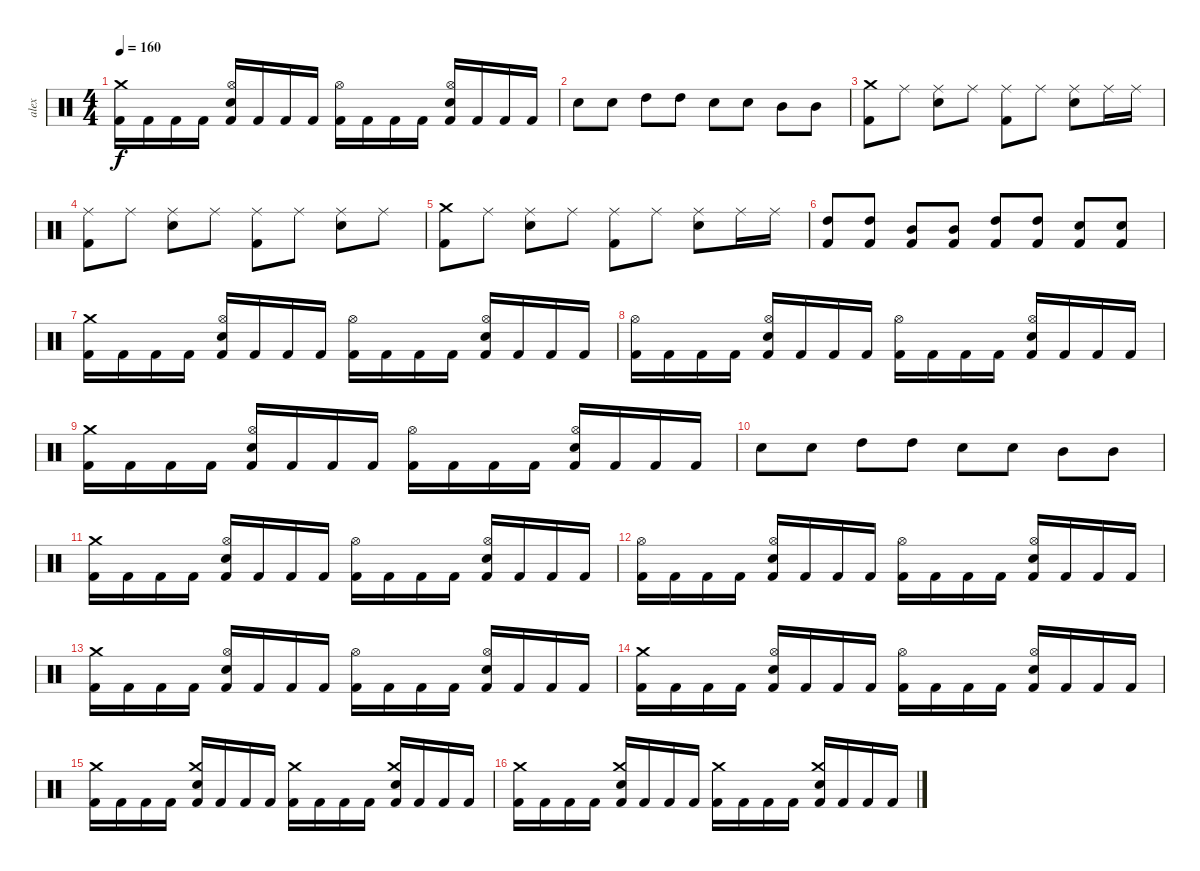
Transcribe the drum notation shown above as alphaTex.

\track ("alex" "alex") {instrument percussion}
\staff {score}
\articulation defaults
\ts (4 4)
\tempo 160
\clef neutral
\ks c
("Kick (hit) 2" "Crash medium (hit)").16{dy f} "Kick (hit) 2".16 "Kick (hit) 2".16 "Kick (hit) 2".16 ("Hi-Hat (open)" "Kick (hit) 2" "Electric Snare (hit)").16 "Kick (hit) 2".16 "Kick (hit) 2".16 "Kick (hit) 2".16 ("Hi-Hat (open)" "Kick (hit) 2").16 "Kick (hit) 2".16 "Kick (hit) 2".16 "Kick (hit) 2".16 ("Hi-Hat (open)" "Kick (hit) 2" "Electric Snare (hit)").16 "Kick (hit) 2".16 "Kick (hit) 2".16 "Kick (hit) 2".16 |
"Electric Snare (hit)".8 "Electric Snare (hit)".8 "High Tom (hit)".8 "High Tom (hit)".8 "Electric Snare (hit)".8 "Electric Snare (hit)".8 "Mid Tom (hit)".8 "Mid Tom (hit)".8 |
("Kick (hit) 2" "Crash medium (hit)").8 "Ride (middle)".8 ("Electric Snare (hit)" "Ride (middle)").8 "Ride (middle)".8 ("Kick (hit) 2" "Ride (middle)").8 "Ride (middle)".8 ("Electric Snare (hit)" "Ride (middle)").8 "Ride (middle)".16 "Ride (middle)".16 |
("Kick (hit) 2" "Ride (middle)").8 "Ride (middle)".8 ("Electric Snare (hit)" "Ride (middle)").8 "Ride (middle)".8 ("Kick (hit) 2" "Ride (middle)").8 "Ride (middle)".8 ("Electric Snare (hit)" "Ride (middle)").8 "Ride (middle)".8 |
("Kick (hit) 2" "Crash medium (hit)").8 "Ride (middle)".8 ("Electric Snare (hit)" "Ride (middle)").8 "Ride (middle)".8 ("Kick (hit) 2" "Ride (middle)").8 "Ride (middle)".8 ("Electric Snare (hit)" "Ride (middle)").8 "Ride (middle)".16 "Ride (middle)".16 |
("Kick (hit) 2" "High Tom (hit)").8 ("Kick (hit) 2" "High Tom (hit)").8 ("Kick (hit) 2" "Mid Tom (hit)").8 ("Kick (hit) 2" "Mid Tom (hit)").8 ("Kick (hit) 2" "High Tom (hit)").8 ("Kick (hit) 2" "High Tom (hit)").8 ("Kick (hit) 2" "Electric Snare (hit)").8 ("Kick (hit) 2" "Electric Snare (hit)").8 |
("Kick (hit) 2" "Crash medium (hit)").16 "Kick (hit) 2".16 "Kick (hit) 2".16 "Kick (hit) 2".16 ("Hi-Hat (open)" "Kick (hit) 2" "Electric Snare (hit)").16 "Kick (hit) 2".16 "Kick (hit) 2".16 "Kick (hit) 2".16 ("Hi-Hat (open)" "Kick (hit) 2").16 "Kick (hit) 2".16 "Kick (hit) 2".16 "Kick (hit) 2".16 ("Hi-Hat (open)" "Kick (hit) 2" "Electric Snare (hit)").16 "Kick (hit) 2".16 "Kick (hit) 2".16 "Kick (hit) 2".16 |
("Hi-Hat (open)" "Kick (hit) 2").16 "Kick (hit) 2".16 "Kick (hit) 2".16 "Kick (hit) 2".16 ("Hi-Hat (open)" "Kick (hit) 2" "Electric Snare (hit)").16 "Kick (hit) 2".16 "Kick (hit) 2".16 "Kick (hit) 2".16 ("Hi-Hat (open)" "Kick (hit) 2").16 "Kick (hit) 2".16 "Kick (hit) 2".16 "Kick (hit) 2".16 ("Hi-Hat (open)" "Kick (hit) 2" "Electric Snare (hit)").16 "Kick (hit) 2".16 "Kick (hit) 2".16 "Kick (hit) 2".16 |
("Kick (hit) 2" "Crash medium (hit)").16 "Kick (hit) 2".16 "Kick (hit) 2".16 "Kick (hit) 2".16 ("Hi-Hat (open)" "Kick (hit) 2" "Electric Snare (hit)").16 "Kick (hit) 2".16 "Kick (hit) 2".16 "Kick (hit) 2".16 ("Hi-Hat (open)" "Kick (hit) 2").16 "Kick (hit) 2".16 "Kick (hit) 2".16 "Kick (hit) 2".16 ("Hi-Hat (open)" "Kick (hit) 2" "Electric Snare (hit)").16 "Kick (hit) 2".16 "Kick (hit) 2".16 "Kick (hit) 2".16 |
"Electric Snare (hit)".8 "Electric Snare (hit)".8 "High Tom (hit)".8 "High Tom (hit)".8 "Electric Snare (hit)".8 "Electric Snare (hit)".8 "Mid Tom (hit)".8 "Mid Tom (hit)".8 |
("Kick (hit) 2" "Crash medium (hit)").16 "Kick (hit) 2".16 "Kick (hit) 2".16 "Kick (hit) 2".16 ("Hi-Hat (open)" "Kick (hit) 2" "Electric Snare (hit)").16 "Kick (hit) 2".16 "Kick (hit) 2".16 "Kick (hit) 2".16 ("Hi-Hat (open)" "Kick (hit) 2").16 "Kick (hit) 2".16 "Kick (hit) 2".16 "Kick (hit) 2".16 ("Hi-Hat (open)" "Kick (hit) 2" "Electric Snare (hit)").16 "Kick (hit) 2".16 "Kick (hit) 2".16 "Kick (hit) 2".16 |
("Hi-Hat (open)" "Kick (hit) 2").16 "Kick (hit) 2".16 "Kick (hit) 2".16 "Kick (hit) 2".16 ("Hi-Hat (open)" "Kick (hit) 2" "Electric Snare (hit)").16 "Kick (hit) 2".16 "Kick (hit) 2".16 "Kick (hit) 2".16 ("Hi-Hat (open)" "Kick (hit) 2").16 "Kick (hit) 2".16 "Kick (hit) 2".16 "Kick (hit) 2".16 ("Hi-Hat (open)" "Kick (hit) 2" "Electric Snare (hit)").16 "Kick (hit) 2".16 "Kick (hit) 2".16 "Kick (hit) 2".16 |
("Kick (hit) 2" "Crash medium (hit)").16 "Kick (hit) 2".16 "Kick (hit) 2".16 "Kick (hit) 2".16 ("Hi-Hat (open)" "Kick (hit) 2" "Electric Snare (hit)").16 "Kick (hit) 2".16 "Kick (hit) 2".16 "Kick (hit) 2".16 ("Hi-Hat (open)" "Kick (hit) 2").16 "Kick (hit) 2".16 "Kick (hit) 2".16 "Kick (hit) 2".16 ("Hi-Hat (open)" "Kick (hit) 2" "Electric Snare (hit)").16 "Kick (hit) 2".16 "Kick (hit) 2".16 "Kick (hit) 2".16 |
("Kick (hit) 2" "Crash medium (hit)").16 "Kick (hit) 2".16 "Kick (hit) 2".16 "Kick (hit) 2".16 ("Hi-Hat (open)" "Kick (hit) 2" "Electric Snare (hit)").16 "Kick (hit) 2".16 "Kick (hit) 2".16 "Kick (hit) 2".16 ("Hi-Hat (open)" "Kick (hit) 2").16 "Kick (hit) 2".16 "Kick (hit) 2".16 "Kick (hit) 2".16 ("Hi-Hat (open)" "Kick (hit) 2" "Electric Snare (hit)").16 "Kick (hit) 2".16 "Kick (hit) 2".16 "Kick (hit) 2".16 |
("Kick (hit) 2" "Crash medium (hit)").16 "Kick (hit) 2".16 "Kick (hit) 2".16 "Kick (hit) 2".16 ("Kick (hit) 2" "Crash medium (hit)" "Electric Snare (hit)").16 "Kick (hit) 2".16 "Kick (hit) 2".16 "Kick (hit) 2".16 ("Kick (hit) 2" "Crash medium (hit)").16 "Kick (hit) 2".16 "Kick (hit) 2".16 "Kick (hit) 2".16 ("Kick (hit) 2" "Crash medium (hit)" "Electric Snare (hit)").16 "Kick (hit) 2".16 "Kick (hit) 2".16 "Kick (hit) 2".16 |
("Kick (hit) 2" "Crash medium (hit)").16 "Kick (hit) 2".16 "Kick (hit) 2".16 "Kick (hit) 2".16 ("Kick (hit) 2" "Crash medium (hit)" "Electric Snare (hit)").16 "Kick (hit) 2".16 "Kick (hit) 2".16 "Kick (hit) 2".16 ("Kick (hit) 2" "Crash medium (hit)").16 "Kick (hit) 2".16 "Kick (hit) 2".16 "Kick (hit) 2".16 ("Kick (hit) 2" "Crash medium (hit)" "Electric Snare (hit)").16 "Kick (hit) 2".16 "Kick (hit) 2".16 "Kick (hit) 2".16
